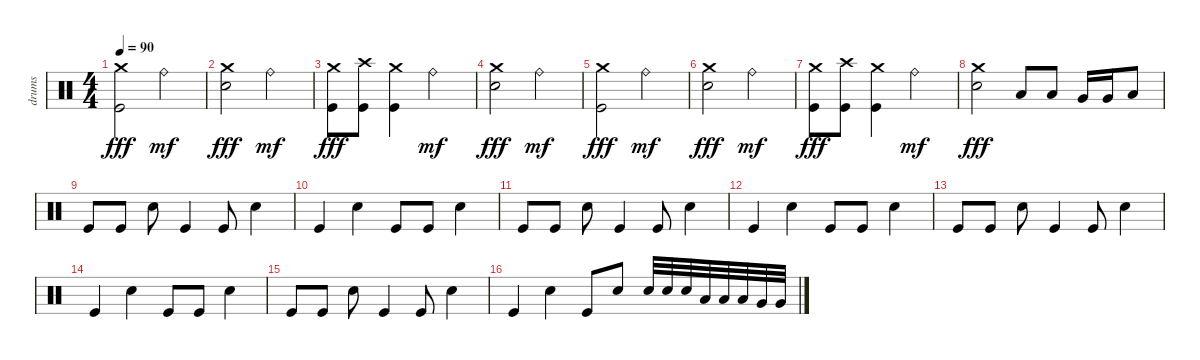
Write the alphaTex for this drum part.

\track ("drums" "drums") {instrument percussion}
\staff {score}
\articulation defaults
\ts (4 4)
\tempo 90
\clef neutral
\ks c
("Crash medium (hit)" "Kick (hit)").2{dy fff} "Ride (bell)".2{dy mf} |
("Crash medium (hit)" "Electric Snare (hit)").2{dy fff} "Ride (bell)".2{dy mf} |
("Crash medium (hit)" "Kick (hit)").8{dy fff} ("Crash high (hit)" "Kick (hit)").8 ("Crash medium (hit)" "Kick (hit)").4 "Ride (bell)".2{dy mf} |
("Crash medium (hit)" "Electric Snare (hit)").2{dy fff} "Ride (bell)".2{dy mf} |
("Crash medium (hit)" "Kick (hit)").2{dy fff} "Ride (bell)".2{dy mf} |
("Crash medium (hit)" "Electric Snare (hit)").2{dy fff} "Ride (bell)".2{dy mf} |
("Crash medium (hit)" "Kick (hit)").8{dy fff} ("Crash high (hit)" "Kick (hit)").8 ("Crash medium (hit)" "Kick (hit)").4 "Ride (bell)".2{dy mf} |
("Crash medium (hit)" "Electric Snare (hit)").2{dy fff} "Low Tom (hit)".8 "Low Tom (hit)".8 "Very Low Tom (hit)".16 "Very Low Tom (hit)".16 "Low Floor Tom (hit)".8 |
"Kick (hit)".8 "Kick (hit)".8 "Electric Snare (hit)".8 "Kick (hit)".4 "Kick (hit)".8 "Electric Snare (hit)".4 |
"Kick (hit)".4 "Electric Snare (hit)".4 "Kick (hit)".8 "Kick (hit)".8 "Electric Snare (hit)".4 |
"Kick (hit)".8 "Kick (hit)".8 "Electric Snare (hit)".8 "Kick (hit)".4 "Kick (hit)".8 "Electric Snare (hit)".4 |
"Kick (hit)".4 "Electric Snare (hit)".4 "Kick (hit)".8 "Kick (hit)".8 "Electric Snare (hit)".4 |
"Kick (hit)".8 "Kick (hit)".8 "Electric Snare (hit)".8 "Kick (hit)".4 "Kick (hit)".8 "Electric Snare (hit)".4 |
"Kick (hit)".4 "Electric Snare (hit)".4 "Kick (hit)".8 "Kick (hit)".8 "Electric Snare (hit)".4 |
"Kick (hit)".8 "Kick (hit)".8 "Electric Snare (hit)".8 "Kick (hit)".4 "Kick (hit)".8 "Electric Snare (hit)".4 |
"Kick (hit)".4 "Electric Snare (hit)".4 "Kick (hit)".8 "Electric Snare (hit)".8 "Electric Snare (hit)".32 "Electric Snare (hit)".32 "Electric Snare (hit)".32 "Low Tom (hit)".32 "Low Tom (hit)".32 "Low Tom (hit)".32 "Very Low Tom (hit)".32 "Very Low Tom (hit)".32
